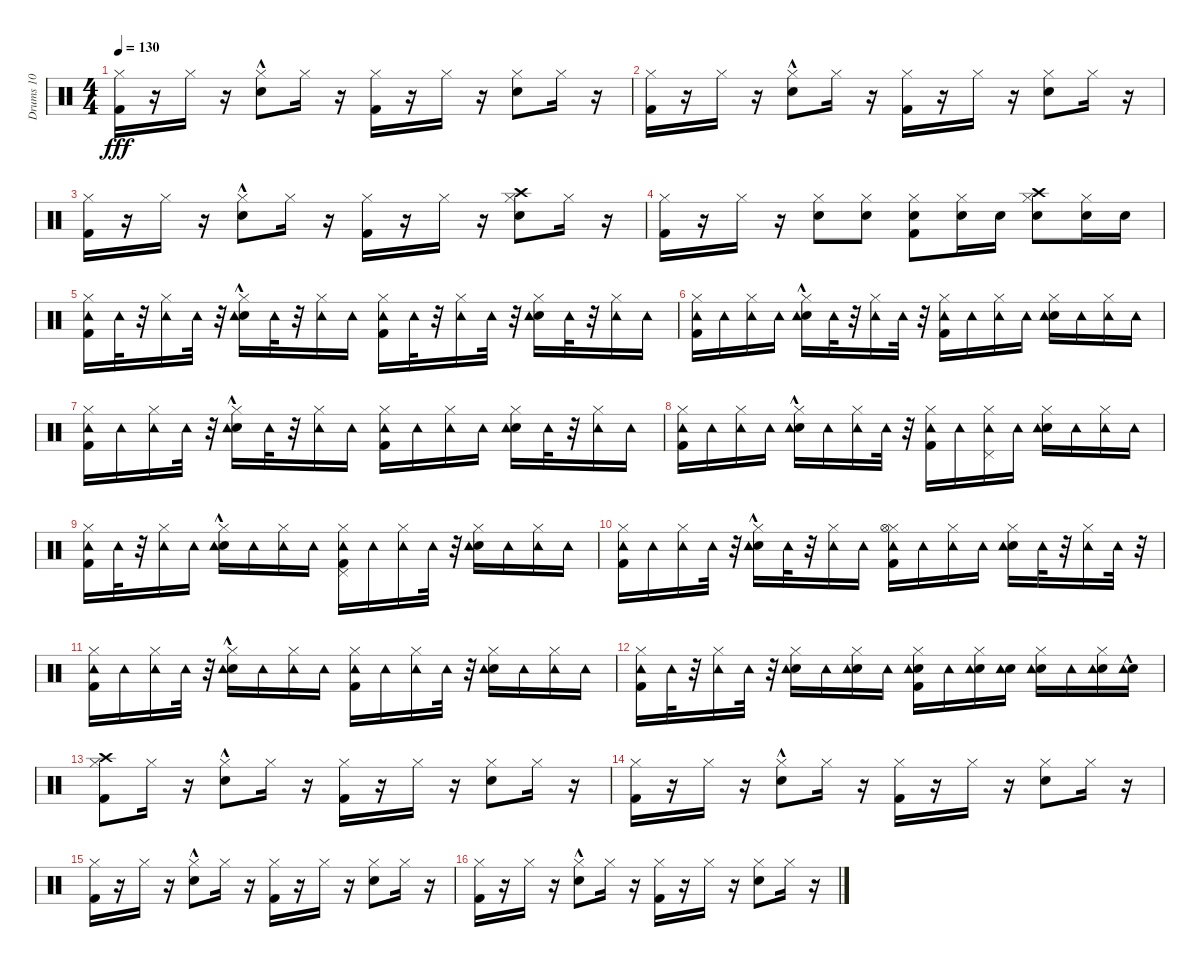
\track ("Drums 10            " "Drums 10  ") {instrument percussion}
\staff {score}
\articulation defaults
\ts (4 4)
\tempo 130
\clef neutral
\ks c
("Kick (hit) 2" "Hi-Hat (closed)").16{dy fff} r.16 "Hi-Hat (closed)".16 r.16 ("Snare (hit) 2"{hac} "Hi-Hat (closed)").8 "Hi-Hat (closed)".16 r.16 ("Kick (hit) 2" "Hi-Hat (closed)").16 r.16 "Hi-Hat (closed)".16 r.16 ("Snare (hit) 2" "Hi-Hat (closed)").8 "Hi-Hat (closed)".16 r.16 |
("Kick (hit) 2" "Hi-Hat (closed)").16 r.16 "Hi-Hat (closed)".16 r.16 ("Snare (hit) 2"{hac} "Hi-Hat (closed)").8 "Hi-Hat (closed)".16 r.16 ("Kick (hit) 2" "Hi-Hat (closed)").16 r.16 "Hi-Hat (closed)".16 r.16 ("Snare (hit) 2" "Hi-Hat (closed)").8 "Hi-Hat (closed)".16 r.16 |
("Kick (hit) 2" "Hi-Hat (closed)").16 r.16 "Hi-Hat (closed)".16 r.16 ("Snare (hit) 2"{hac} "Hi-Hat (closed)").8 "Hi-Hat (closed)".16 r.16 ("Kick (hit) 2" "Hi-Hat (closed)").16 r.16 "Hi-Hat (closed)".16 r.16 ("Snare (hit) 2" "Hi-Hat (closed)" "Crash high (hit)").8 "Hi-Hat (closed)".16 r.16 |
("Kick (hit) 2" "Hi-Hat (closed)").16 r.16 "Hi-Hat (closed)".16 r.16 ("Snare (hit) 2" "Hi-Hat (closed)").8 ("Snare (hit) 2" "Hi-Hat (closed)").8 ("Kick (hit) 2" "Snare (hit) 2" "Hi-Hat (closed)").8 ("Snare (hit) 2" "Hi-Hat (closed)").16 "Snare (hit) 2".16 ("Snare (hit) 2" "Hi-Hat (closed)" "Crash high (hit)").8 ("Snare (hit) 2" "Hi-Hat (closed)").16 "Snare (hit) 2".16 |
("Kick (hit) 2" "Tambourine (hit)" "Hi-Hat (closed)").16 "Tambourine (hit)".32 r.32 ("Tambourine (hit)" "Hi-Hat (closed)").16 "Tambourine (hit)".32 r.32 ("Snare (hit) 2"{hac} "Tambourine (hit)" "Hi-Hat (closed)").16 "Tambourine (hit)".32 r.32 ("Tambourine (hit)" "Hi-Hat (closed)").16 "Tambourine (hit)".16 ("Kick (hit) 2" "Tambourine (hit)" "Hi-Hat (closed)").16 "Tambourine (hit)".32 r.32 ("Tambourine (hit)" "Hi-Hat (closed)").16 "Tambourine (hit)".32 r.32 ("Snare (hit) 2" "Tambourine (hit)" "Hi-Hat (closed)").16 "Tambourine (hit)".32 r.32 ("Tambourine (hit)" "Hi-Hat (closed)").16 "Tambourine (hit)".16 |
("Kick (hit) 2" "Tambourine (hit)" "Hi-Hat (closed)").16 "Tambourine (hit)".16 ("Tambourine (hit)" "Hi-Hat (closed)").16 "Tambourine (hit)".16 ("Snare (hit) 2"{hac} "Tambourine (hit)" "Hi-Hat (closed)").16 "Tambourine (hit)".32 r.32 ("Tambourine (hit)" "Hi-Hat (closed)").16 "Tambourine (hit)".32 r.32 ("Kick (hit) 2" "Tambourine (hit)" "Hi-Hat (closed)").16 "Tambourine (hit)".16 ("Tambourine (hit)" "Hi-Hat (closed)").16 "Tambourine (hit)".16 ("Snare (hit) 2" "Tambourine (hit)" "Hi-Hat (closed)").16 "Tambourine (hit)".16 ("Tambourine (hit)" "Hi-Hat (closed)").16 "Tambourine (hit)".16 |
("Kick (hit) 2" "Tambourine (hit)" "Hi-Hat (closed)").16 "Tambourine (hit)".16 ("Tambourine (hit)" "Hi-Hat (closed)").16 "Tambourine (hit)".32 r.32 ("Snare (hit) 2"{hac} "Tambourine (hit)" "Hi-Hat (closed)").16 "Tambourine (hit)".32 r.32 ("Tambourine (hit)" "Hi-Hat (closed)").16 "Tambourine (hit)".16 ("Kick (hit) 2" "Tambourine (hit)" "Hi-Hat (closed)").16 "Tambourine (hit)".16 ("Tambourine (hit)" "Hi-Hat (closed)").16 "Tambourine (hit)".16 ("Snare (hit) 2" "Tambourine (hit)" "Hi-Hat (closed)").16 "Tambourine (hit)".32 r.32 ("Tambourine (hit)" "Hi-Hat (closed)").16 "Tambourine (hit)".16 |
("Kick (hit) 2" "Tambourine (hit)" "Hi-Hat (closed)").16 "Tambourine (hit)".16 ("Tambourine (hit)" "Hi-Hat (closed)").16 "Tambourine (hit)".16 ("Snare (hit) 2"{hac} "Tambourine (hit)" "Hi-Hat (closed)").16 "Tambourine (hit)".16 ("Tambourine (hit)" "Hi-Hat (closed)").16 "Tambourine (hit)".32 r.32 ("Kick (hit) 2" "Tambourine (hit)" "Hi-Hat (closed)").16 "Tambourine (hit)".16 ("Tambourine (hit)" "Hi-Hat (closed)" "Pedal Hi-Hat (hit)").16 "Tambourine (hit)".16 ("Snare (hit) 2" "Tambourine (hit)" "Hi-Hat (closed)").16 "Tambourine (hit)".16 ("Tambourine (hit)" "Hi-Hat (closed)").16 "Tambourine (hit)".16 |
("Kick (hit) 2" "Tambourine (hit)" "Hi-Hat (closed)").16 "Tambourine (hit)".32 r.32 ("Tambourine (hit)" "Hi-Hat (closed)").16 "Tambourine (hit)".16 ("Snare (hit) 2"{hac} "Tambourine (hit)" "Hi-Hat (closed)").16 "Tambourine (hit)".16 ("Tambourine (hit)" "Hi-Hat (closed)").16 "Tambourine (hit)".16 ("Kick (hit) 2" "Tambourine (hit)" "Hi-Hat (closed)" "Pedal Hi-Hat (hit)").16 "Tambourine (hit)".16 ("Tambourine (hit)" "Hi-Hat (closed)").16 "Tambourine (hit)".32 r.32 ("Snare (hit) 2" "Tambourine (hit)" "Hi-Hat (closed)").16 "Tambourine (hit)".16 ("Tambourine (hit)" "Hi-Hat (closed)").16 "Tambourine (hit)".16 |
("Kick (hit) 2" "Tambourine (hit)" "Hi-Hat (closed)").16 "Tambourine (hit)".16 ("Tambourine (hit)" "Hi-Hat (closed)").16 "Tambourine (hit)".32 r.32 ("Snare (hit) 2"{hac} "Tambourine (hit)" "Hi-Hat (closed)").16 "Tambourine (hit)".32 r.32 ("Tambourine (hit)" "Hi-Hat (closed)").16 "Tambourine (hit)".16 ("Kick (hit) 2" "Tambourine (hit)" "Hi-Hat (closed)" "Hi-Hat (open)").16 "Tambourine (hit)".16 ("Tambourine (hit)" "Hi-Hat (closed)").16 "Tambourine (hit)".16 ("Snare (hit) 2" "Tambourine (hit)" "Hi-Hat (closed)").16 "Tambourine (hit)".32 r.32 ("Tambourine (hit)" "Hi-Hat (closed)").16 "Tambourine (hit)".32 r.32 |
("Kick (hit) 2" "Tambourine (hit)" "Hi-Hat (closed)").16 "Tambourine (hit)".16 ("Tambourine (hit)" "Hi-Hat (closed)").16 "Tambourine (hit)".32 r.32 ("Snare (hit) 2"{hac} "Tambourine (hit)" "Hi-Hat (closed)").16 "Tambourine (hit)".16 ("Tambourine (hit)" "Hi-Hat (closed)").16 "Tambourine (hit)".16 ("Kick (hit) 2" "Tambourine (hit)" "Hi-Hat (closed)").16 "Tambourine (hit)".16 ("Tambourine (hit)" "Hi-Hat (closed)").16 "Tambourine (hit)".32 r.32 ("Snare (hit) 2" "Tambourine (hit)" "Hi-Hat (closed)").16 "Tambourine (hit)".16 ("Tambourine (hit)" "Hi-Hat (closed)").16 "Tambourine (hit)".16 |
("Kick (hit) 2" "Tambourine (hit)" "Hi-Hat (closed)").16 "Tambourine (hit)".32 r.32 ("Tambourine (hit)" "Hi-Hat (closed)").16 "Tambourine (hit)".32 r.32 ("Snare (hit) 2" "Tambourine (hit)" "Hi-Hat (closed)").16 "Tambourine (hit)".16 ("Snare (hit) 2" "Tambourine (hit)" "Hi-Hat (closed)").16 "Tambourine (hit)".16 ("Kick (hit) 2" "Snare (hit) 2" "Tambourine (hit)" "Hi-Hat (closed)").16 "Tambourine (hit)".16 ("Snare (hit) 2" "Tambourine (hit)" "Hi-Hat (closed)").16 ("Snare (hit) 2" "Tambourine (hit)").16 ("Snare (hit) 2" "Tambourine (hit)" "Hi-Hat (closed)").16 "Tambourine (hit)".16 ("Snare (hit) 2" "Tambourine (hit)" "Hi-Hat (closed)").16 ("Snare (hit) 2"{hac} "Tambourine (hit)").16 |
("Kick (hit) 2" "Hi-Hat (closed)" "Crash high (hit)").8 "Hi-Hat (closed)".16 r.16 ("Snare (hit) 2"{hac} "Hi-Hat (closed)").8 "Hi-Hat (closed)".16 r.16 ("Kick (hit) 2" "Hi-Hat (closed)").16 r.16 "Hi-Hat (closed)".16 r.16 ("Snare (hit) 2" "Hi-Hat (closed)").8 "Hi-Hat (closed)".16 r.16 |
("Kick (hit) 2" "Hi-Hat (closed)").16 r.16 "Hi-Hat (closed)".16 r.16 ("Snare (hit) 2"{hac} "Hi-Hat (closed)").8 "Hi-Hat (closed)".16 r.16 ("Kick (hit) 2" "Hi-Hat (closed)").16 r.16 "Hi-Hat (closed)".16 r.16 ("Snare (hit) 2" "Hi-Hat (closed)").8 "Hi-Hat (closed)".16 r.16 |
("Kick (hit) 2" "Hi-Hat (closed)").16 r.16 "Hi-Hat (closed)".16 r.16 ("Snare (hit) 2"{hac} "Hi-Hat (closed)").8 "Hi-Hat (closed)".16 r.16 ("Kick (hit) 2" "Hi-Hat (closed)").16 r.16 "Hi-Hat (closed)".16 r.16 ("Snare (hit) 2" "Hi-Hat (closed)").8 "Hi-Hat (closed)".16 r.16 |
("Kick (hit) 2" "Hi-Hat (closed)").16 r.16 "Hi-Hat (closed)".16 r.16 ("Snare (hit) 2"{hac} "Hi-Hat (closed)").8 "Hi-Hat (closed)".16 r.16 ("Kick (hit) 2" "Hi-Hat (closed)").16 r.16 "Hi-Hat (closed)".16 r.16 ("Snare (hit) 2" "Hi-Hat (closed)").8 "Hi-Hat (closed)".16 r.16
